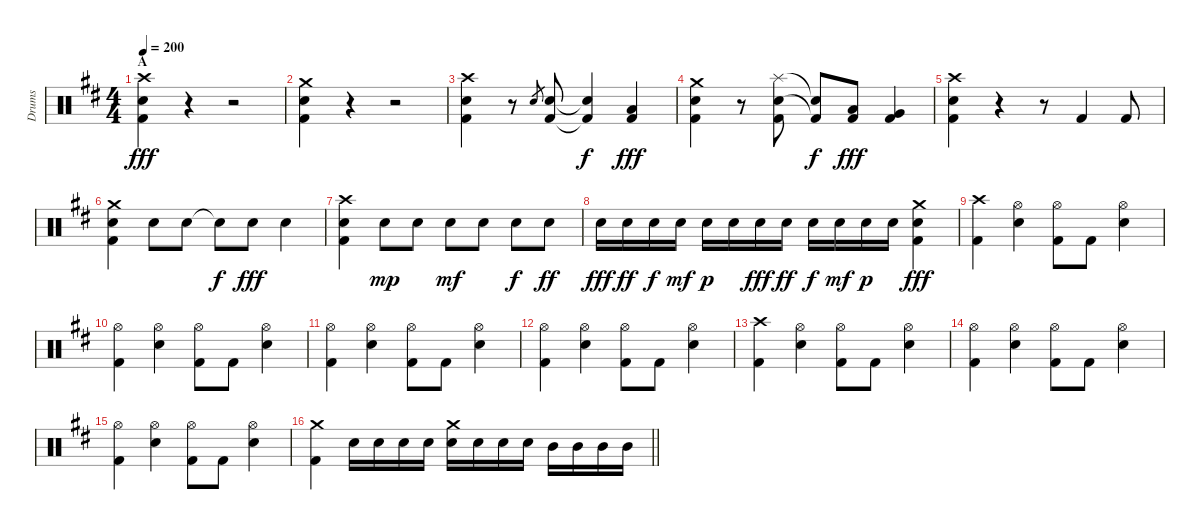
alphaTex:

\track ("Drums" "Drums") {instrument percussion}
\staff {score}
\articulation defaults
\ts (4 4)
\section ("" "A")
\tempo 200
\clef neutral
\ks d
("Crash high (hit)" "Snare (hit) 2" "Kick (hit) 2").4{dy fff} r.4 r.2 |
("Crash medium (hit)" "Snare (hit) 2" "Kick (hit) 2").4 r.4 r.2 |
("Crash high (hit)" "Snare (hit) 2" "Kick (hit) 2").4 r.8 "Snare (hit) 2".8{gr} ("Snare (hit) 2" "Kick (hit) 2").8 ("Snare (hit)"{t} "Kick (hit) 2"{t}).4{dy f} ("Low Tom (hit)" "Kick (hit) 2").4{dy fff} |
("Crash medium (hit)" "Snare (hit) 2" "Kick (hit) 2").4 r.8 ("Splash (hit)" "Snare (hit) 2" "Kick (hit) 2").8 ("Snare (hit) 2"{t} "Kick (hit) 2"{t}).8{dy f} ("Low Tom (hit)" "Kick (hit) 2").8{dy fff} ("Very Low Tom (hit)" "Kick (hit) 2").4 |
("Crash high (hit)" "Snare (hit) 2" "Kick (hit) 2").4 r.4 r.8 "Kick (hit) 2".4 "Kick (hit) 2".8 |
("Crash medium (hit)" "Snare (hit) 2" "Kick (hit) 2").4 "Snare (hit) 2".8 "Snare (hit) 2".8 "Snare (hit) 2"{t}.8{dy f} "Snare (hit) 2".8{dy fff} "Snare (hit) 2".4 |
("Crash high (hit)" "Snare (hit) 2" "Kick (hit) 2").4 "Snare (hit) 2".8{dy mp} "Snare (hit) 2".8 "Snare (hit) 2".8{dy mf} "Snare (hit) 2".8 "Snare (hit) 2".8{dy f} "Snare (hit) 2".8{dy ff} |
"Snare (hit) 2".16{dy fff} "Snare (hit) 2".16{dy ff} "Snare (hit) 2".16{dy f} "Snare (hit) 2".16{dy mf} "Snare (hit) 2".16{dy p} "Snare (hit) 2".16 "Snare (hit) 2".16{dy fff} "Snare (hit) 2".16{dy ff} "Snare (hit) 2".16{dy f} "Snare (hit) 2".16{dy mf} "Snare (hit) 2".16{dy p} "Snare (hit) 2".16 ("Crash medium (hit)" "Snare (hit) 2" "Kick (hit) 2").4{dy fff} |
("Crash high (hit)" "Kick (hit) 2").4 ("Hi-Hat (open)" "Snare (hit) 2").4 ("Hi-Hat (open)" "Kick (hit) 2").8 "Kick (hit) 2".8 ("Hi-Hat (open)" "Snare (hit) 2").4 |
("Hi-Hat (open)" "Kick (hit) 2").4 ("Hi-Hat (open)" "Snare (hit) 2").4 ("Hi-Hat (open)" "Kick (hit) 2").8 "Kick (hit) 2".8 ("Hi-Hat (open)" "Snare (hit) 2").4 |
("Hi-Hat (open)" "Kick (hit) 2").4 ("Hi-Hat (open)" "Snare (hit) 2").4 ("Hi-Hat (open)" "Kick (hit) 2").8 "Kick (hit) 2".8 ("Hi-Hat (open)" "Snare (hit) 2").4 |
("Hi-Hat (open)" "Kick (hit) 2").4 ("Hi-Hat (open)" "Snare (hit) 2").4 ("Hi-Hat (open)" "Kick (hit) 2").8 "Kick (hit) 2".8 ("Hi-Hat (open)" "Snare (hit) 2").4 |
("Crash high (hit)" "Kick (hit) 2").4 ("Hi-Hat (open)" "Snare (hit) 2").4 ("Hi-Hat (open)" "Kick (hit) 2").8 "Kick (hit) 2".8 ("Hi-Hat (open)" "Snare (hit) 2").4 |
("Hi-Hat (open)" "Kick (hit) 2").4 ("Hi-Hat (open)" "Snare (hit) 2").4 ("Hi-Hat (open)" "Kick (hit) 2").8 "Kick (hit) 2".8 ("Hi-Hat (open)" "Snare (hit) 2").4 |
("Hi-Hat (open)" "Kick (hit) 2").4 ("Hi-Hat (open)" "Snare (hit) 2").4 ("Hi-Hat (open)" "Kick (hit) 2").8 "Kick (hit) 2".8 ("Hi-Hat (open)" "Snare (hit) 2").4 |
\barLineRight lightlight
("Crash medium (hit)" "Kick (hit) 2").4 "Snare (hit) 2".16 "Snare (hit) 2".16 "Snare (hit) 2".16 "Snare (hit) 2".16 ("Crash medium (hit)" "Snare (hit) 2").16 "Snare (hit) 2".16 "Snare (hit) 2".16 "Snare (hit) 2".16 "Mid Tom (hit)".16 "Mid Tom (hit)".16 "Mid Tom (hit)".16 "Mid Tom (hit)".16
